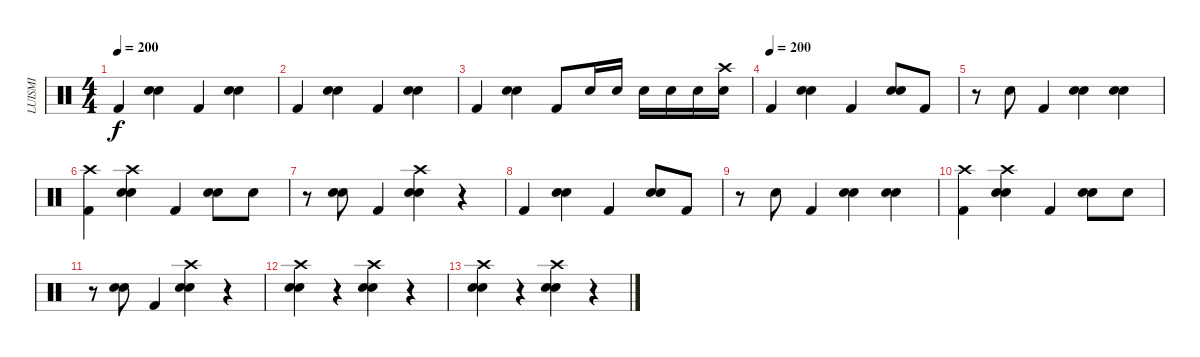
\track ("LUISMI" "LUISMI") {instrument percussion}
\staff {score}
\articulation defaults
\ts (4 4)
\tempo 200
\clef neutral
\ks c "Kick (hit) 2".4{dy f}
("Electric Snare (hit)" "Snare (hit) 2").4 "Kick (hit) 2".4 ("Electric Snare (hit)" "Snare (hit) 2").4 |
"Kick (hit) 2".4 ("Snare (hit) 2" "Electric Snare (hit)").4 "Kick (hit) 2".4 ("Electric Snare (hit)" "Snare (hit) 2").4 |
"Kick (hit) 2".4 ("Snare (hit) 2" "Electric Snare (hit)").4 "Kick (hit) 2".8 "Electric Snare (hit)".16 "Electric Snare (hit)".16 "Electric Snare (hit)".16 "Electric Snare (hit)".16 "Electric Snare (hit)".16 ("Crash high (hit)" "Electric Snare (hit)").16 |
\tempo (200)
"Kick (hit) 2".4 ("Electric Snare (hit)" "Snare (hit) 2").4 "Kick (hit) 2".4 ("Electric Snare (hit)" "Snare (hit) 2").8 "Kick (hit) 2".8 |
r.8 "Electric Snare (hit)".8 "Kick (hit) 2".4 ("Electric Snare (hit)" "Snare (hit) 2").4 ("Electric Snare (hit)" "Snare (hit) 2").4 |
("Crash high (hit)" "Kick (hit) 2").4 ("Crash high (hit)" "Electric Snare (hit)" "Snare (hit) 2").4 "Kick (hit) 2".4 ("Electric Snare (hit)" "Snare (hit) 2").8 "Snare (hit) 2".8 |
r.8 ("Electric Snare (hit)" "Snare (hit) 2").8 "Kick (hit) 2".4 ("Crash high (hit)" "Electric Snare (hit)" "Snare (hit) 2").4 r.4 |
"Kick (hit) 2".4 ("Electric Snare (hit)" "Snare (hit) 2").4 "Kick (hit) 2".4 ("Electric Snare (hit)" "Snare (hit) 2").8 "Kick (hit) 2".8 |
r.8 "Electric Snare (hit)".8 "Kick (hit) 2".4 ("Electric Snare (hit)" "Snare (hit) 2").4 ("Electric Snare (hit)" "Snare (hit) 2").4 |
("Crash high (hit)" "Kick (hit) 2").4 ("Crash high (hit)" "Electric Snare (hit)" "Snare (hit) 2").4 "Kick (hit) 2".4 ("Electric Snare (hit)" "Snare (hit) 2").8 "Snare (hit) 2".8 |
r.8 ("Electric Snare (hit)" "Snare (hit) 2").8 "Kick (hit) 2".4 ("Crash high (hit)" "Electric Snare (hit)" "Snare (hit) 2").4 r.4 |
("Crash high (hit)" "Electric Snare (hit)" "Snare (hit) 2").4 r.4 ("Crash high (hit)" "Electric Snare (hit)" "Snare (hit) 2").4 r.4 |
("Crash high (hit)" "Electric Snare (hit)" "Snare (hit) 2").4 r.4 ("Crash high (hit)" "Electric Snare (hit)" "Snare (hit) 2").4 r.4
